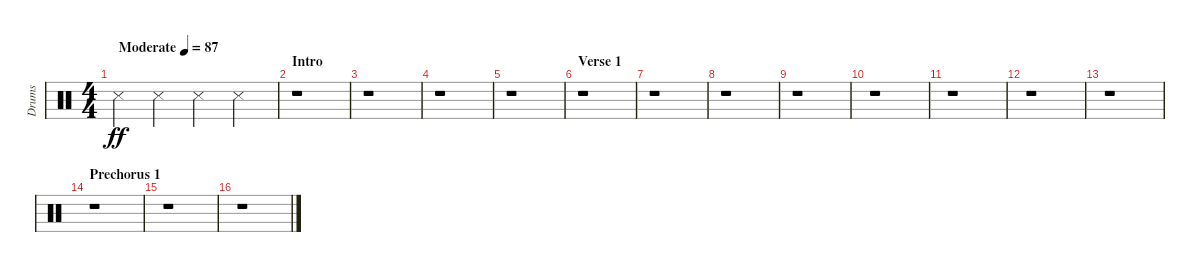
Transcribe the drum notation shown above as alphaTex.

\track ("Drums" "Drums") {instrument percussion}
\staff {score}
\articulation defaults
\ts (4 4)
\tempo (87 "Moderate")
\clef neutral
\ks c "Snare (side stick) 3".4{dy ff} "Snare (side stick) 3".4 "Snare (side stick) 3".4 "Snare (side stick) 3".4
|
\section ("" "Intro")
r.1 |
r.1 |
r.1 |
r.1 |
\section ("" "Verse 1")
r.1 |
r.1 |
r.1 |
r.1 |
r.1 |
r.1 |
r.1 |
r.1 |
\section ("" "Prechorus 1")
r.1 |
r.1 |
r.1
